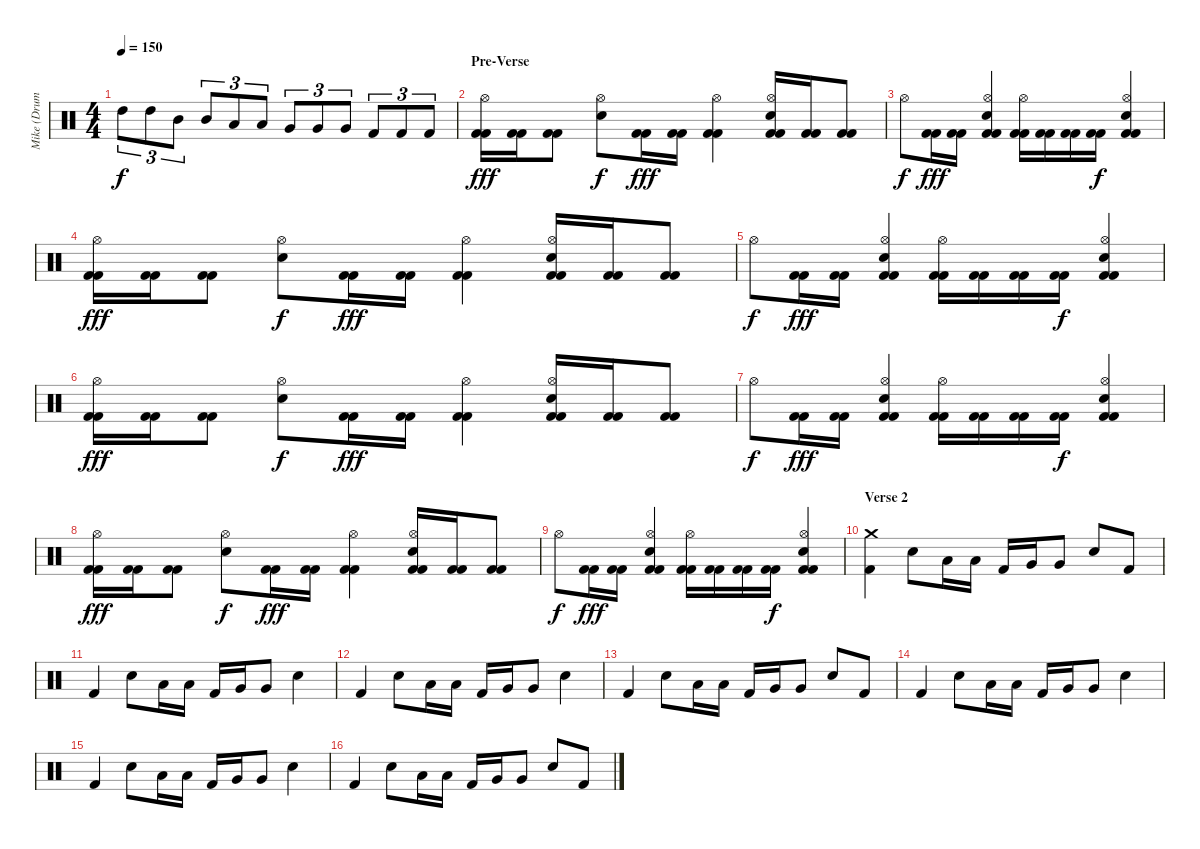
\track ("Mike (Drums)" "Mike (Drum") {instrument percussion}
\staff {score}
\articulation defaults
\ts (4 4)
\tempo 150
\clef neutral
\ks c "High Tom (hit)".8{tu (3 2) dy f} "High Tom (hit)".8{tu (3 2)} "Mid Tom (hit)".8{tu (3 2)} "Mid Tom (hit)".8{tu (3 2)} "Low Tom (hit)".8{tu (3 2)} "Low Tom (hit)".8{tu (3 2)} "Very Low Tom (hit)".8{tu (3 2)} "Very Low Tom (hit)".8{tu (3 2)} "Very Low Tom (hit)".8{tu (3 2)} "Kick (hit) 2".8{tu (3 2)} "Kick (hit) 2".8{tu (3 2)} "Kick (hit) 2".8{tu (3 2)}
|
\section ("" "Pre-Verse")
("Hi-Hat (open)" "Kick (hit) 2" "Kick (hit) 2").16{dy fff} ("Kick (hit) 2" "Kick (hit) 2").16 ("Kick (hit) 2" "Kick (hit) 2").8 ("Hi-Hat (open)" "Snare (hit) 2").8{dy f} ("Kick (hit) 2" "Kick (hit) 2").16{dy fff} ("Kick (hit) 2" "Kick (hit) 2").16 ("Hi-Hat (open)" "Kick (hit) 2" "Kick (hit) 2").4 ("Hi-Hat (open)" "Snare (hit) 2" "Kick (hit) 2" "Kick (hit) 2").16 ("Kick (hit) 2" "Kick (hit) 2").16 ("Kick (hit) 2" "Kick (hit) 2").8 |
"Hi-Hat (open)".8{dy f} ("Kick (hit) 2" "Kick (hit) 2").16{dy fff} ("Kick (hit) 2" "Kick (hit) 2").16 ("Hi-Hat (open)" "Snare (hit) 2" "Kick (hit) 2" "Kick (hit) 2").4 ("Hi-Hat (open)" "Kick (hit) 2" "Kick (hit) 2").16 ("Kick (hit) 2" "Kick (hit) 2").16 ("Kick (hit) 2" "Kick (hit) 2").16 ("Kick (hit) 2" "Kick (hit) 2").16{dy f} ("Hi-Hat (open)" "Snare (hit) 2" "Kick (hit) 2" "Kick (hit) 2").4 |
("Hi-Hat (open)" "Kick (hit) 2" "Kick (hit) 2").16{dy fff} ("Kick (hit) 2" "Kick (hit) 2").16 ("Kick (hit) 2" "Kick (hit) 2").8 ("Hi-Hat (open)" "Snare (hit) 2").8{dy f} ("Kick (hit) 2" "Kick (hit) 2").16{dy fff} ("Kick (hit) 2" "Kick (hit) 2").16 ("Hi-Hat (open)" "Kick (hit) 2" "Kick (hit) 2").4 ("Hi-Hat (open)" "Snare (hit) 2" "Kick (hit) 2" "Kick (hit) 2").16 ("Kick (hit) 2" "Kick (hit) 2").16 ("Kick (hit) 2" "Kick (hit) 2").8 |
"Hi-Hat (open)".8{dy f} ("Kick (hit) 2" "Kick (hit) 2").16{dy fff} ("Kick (hit) 2" "Kick (hit) 2").16 ("Hi-Hat (open)" "Snare (hit) 2" "Kick (hit) 2" "Kick (hit) 2").4 ("Hi-Hat (open)" "Kick (hit) 2" "Kick (hit) 2").16 ("Kick (hit) 2" "Kick (hit) 2").16 ("Kick (hit) 2" "Kick (hit) 2").16 ("Kick (hit) 2" "Kick (hit) 2").16{dy f} ("Hi-Hat (open)" "Snare (hit) 2" "Kick (hit) 2" "Kick (hit) 2").4 |
("Hi-Hat (open)" "Kick (hit) 2" "Kick (hit) 2").16{dy fff} ("Kick (hit) 2" "Kick (hit) 2").16 ("Kick (hit) 2" "Kick (hit) 2").8 ("Hi-Hat (open)" "Snare (hit) 2").8{dy f} ("Kick (hit) 2" "Kick (hit) 2").16{dy fff} ("Kick (hit) 2" "Kick (hit) 2").16 ("Hi-Hat (open)" "Kick (hit) 2" "Kick (hit) 2").4 ("Hi-Hat (open)" "Snare (hit) 2" "Kick (hit) 2" "Kick (hit) 2").16 ("Kick (hit) 2" "Kick (hit) 2").16 ("Kick (hit) 2" "Kick (hit) 2").8 |
"Hi-Hat (open)".8{dy f} ("Kick (hit) 2" "Kick (hit) 2").16{dy fff} ("Kick (hit) 2" "Kick (hit) 2").16 ("Hi-Hat (open)" "Snare (hit) 2" "Kick (hit) 2" "Kick (hit) 2").4 ("Hi-Hat (open)" "Kick (hit) 2" "Kick (hit) 2").16 ("Kick (hit) 2" "Kick (hit) 2").16 ("Kick (hit) 2" "Kick (hit) 2").16 ("Kick (hit) 2" "Kick (hit) 2").16{dy f} ("Hi-Hat (open)" "Snare (hit) 2" "Kick (hit) 2" "Kick (hit) 2").4 |
("Hi-Hat (open)" "Kick (hit) 2" "Kick (hit) 2").16{dy fff} ("Kick (hit) 2" "Kick (hit) 2").16 ("Kick (hit) 2" "Kick (hit) 2").8 ("Hi-Hat (open)" "Snare (hit) 2").8{dy f} ("Kick (hit) 2" "Kick (hit) 2").16{dy fff} ("Kick (hit) 2" "Kick (hit) 2").16 ("Hi-Hat (open)" "Kick (hit) 2" "Kick (hit) 2").4 ("Hi-Hat (open)" "Snare (hit) 2" "Kick (hit) 2" "Kick (hit) 2").16 ("Kick (hit) 2" "Kick (hit) 2").16 ("Kick (hit) 2" "Kick (hit) 2").8 |
"Hi-Hat (open)".8{dy f} ("Kick (hit) 2" "Kick (hit) 2").16{dy fff} ("Kick (hit) 2" "Kick (hit) 2").16 ("Hi-Hat (open)" "Snare (hit) 2" "Kick (hit) 2" "Kick (hit) 2").4 ("Hi-Hat (open)" "Kick (hit) 2" "Kick (hit) 2").16 ("Kick (hit) 2" "Kick (hit) 2").16 ("Kick (hit) 2" "Kick (hit) 2").16 ("Kick (hit) 2" "Kick (hit) 2").16{dy f} ("Hi-Hat (open)" "Snare (hit) 2" "Kick (hit) 2" "Kick (hit) 2").4 |
\section ("" "Verse 2")
("Crash medium (hit)" "Kick (hit) 2").4 "Snare (hit) 2".8 "Low Tom (hit)".16 "Low Tom (hit)".16 "Kick (hit) 2".16 "Very Low Tom (hit)".16 "Very Low Tom (hit)".8 "Snare (hit) 2".8 "Kick (hit) 2".8 |
"Kick (hit) 2".4 "Snare (hit) 2".8 "Low Tom (hit)".16 "Low Tom (hit)".16 "Kick (hit) 2".16 "Very Low Tom (hit)".16 "Very Low Tom (hit)".8 "Snare (hit) 2".4 |
"Kick (hit) 2".4 "Snare (hit) 2".8 "Low Tom (hit)".16 "Low Tom (hit)".16 "Kick (hit) 2".16 "Very Low Tom (hit)".16 "Very Low Tom (hit)".8 "Snare (hit) 2".4 |
"Kick (hit) 2".4 "Snare (hit) 2".8 "Low Tom (hit)".16 "Low Tom (hit)".16 "Kick (hit) 2".16 "Very Low Tom (hit)".16 "Very Low Tom (hit)".8 "Snare (hit) 2".8 "Kick (hit) 2".8 |
"Kick (hit) 2".4 "Snare (hit) 2".8 "Low Tom (hit)".16 "Low Tom (hit)".16 "Kick (hit) 2".16 "Very Low Tom (hit)".16 "Very Low Tom (hit)".8 "Snare (hit) 2".4 |
"Kick (hit) 2".4 "Snare (hit) 2".8 "Low Tom (hit)".16 "Low Tom (hit)".16 "Kick (hit) 2".16 "Very Low Tom (hit)".16 "Very Low Tom (hit)".8 "Snare (hit) 2".4 |
"Kick (hit) 2".4 "Snare (hit) 2".8 "Low Tom (hit)".16 "Low Tom (hit)".16 "Kick (hit) 2".16 "Very Low Tom (hit)".16 "Very Low Tom (hit)".8 "Snare (hit) 2".8 "Kick (hit) 2".8
